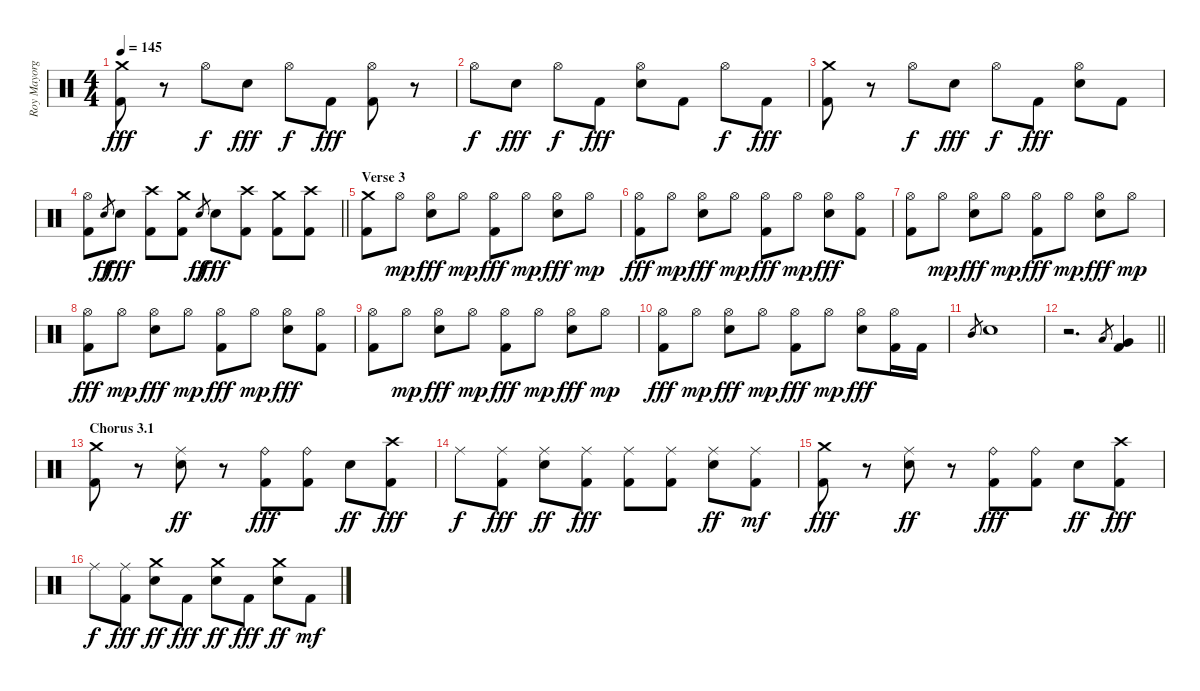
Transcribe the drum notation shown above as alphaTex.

\track ("Roy Mayorga" "Roy Mayorg") {instrument percussion}
\staff {score}
\articulation defaults
\ts (4 4)
\tempo 145
\clef neutral
\ks c
("Crash medium (hit)" "Kick (hit) 2").8{dy fff} r.8 "Hi-Hat (open)".8{dy f} "Electric Snare (hit)".8{dy fff} "Hi-Hat (open)".8{dy f} "Kick (hit) 2".8{dy fff} ("Hi-Hat (open)" "Kick (hit) 2").8 r.8 |
"Hi-Hat (open)".8{dy f} "Electric Snare (hit)".8{dy fff} "Hi-Hat (open)".8{dy f} "Kick (hit) 2".8{dy fff} ("Hi-Hat (open)" "Electric Snare (hit)").8 "Kick (hit) 2".8 "Hi-Hat (open)".8{dy f} "Kick (hit) 2".8{dy fff} |
("Crash medium (hit)" "Kick (hit) 2").8 r.8 "Hi-Hat (open)".8{dy f} "Electric Snare (hit)".8{dy fff} "Hi-Hat (open)".8{dy f} "Kick (hit) 2".8{dy fff} ("Hi-Hat (open)" "Electric Snare (hit)").8 "Kick (hit) 2".8 |
\barLineRight lightlight
("Hi-Hat (open)" "Kick (hit) 2").8 "Electric Snare (hit)".8{gr dy ff} "Electric Snare (hit)".8{dy fff} ("Crash high (hit)" "Kick (hit) 2").8 ("Crash medium (hit)" "Kick (hit) 2").8 "Electric Snare (hit)".8{gr dy ff} "Electric Snare (hit)".8{dy fff} ("Crash high (hit)" "Kick (hit) 2").8 ("Crash medium (hit)" "Kick (hit) 2").8 ("Crash high (hit)" "Kick (hit) 2").8 |
\section ("" "Verse 3")
("Crash medium (hit)" "Kick (hit) 2").8 "Hi-Hat (open)".8{dy mp} ("Hi-Hat (open)" "Electric Snare (hit)").8{dy fff} "Hi-Hat (open)".8{dy mp} ("Hi-Hat (open)" "Kick (hit) 2").8{dy fff} "Hi-Hat (open)".8{dy mp} ("Hi-Hat (open)" "Electric Snare (hit)").8{dy fff} "Hi-Hat (open)".8{dy mp} |
("Hi-Hat (open)" "Kick (hit) 2").8{dy fff} "Hi-Hat (open)".8{dy mp} ("Hi-Hat (open)" "Electric Snare (hit)").8{dy fff} "Hi-Hat (open)".8{dy mp} ("Hi-Hat (open)" "Kick (hit) 2").8{dy fff} "Hi-Hat (open)".8{dy mp} ("Hi-Hat (open)" "Electric Snare (hit)").8{dy fff} ("Hi-Hat (open)" "Kick (hit) 2").8 |
("Hi-Hat (open)" "Kick (hit) 2").8 "Hi-Hat (open)".8{dy mp} ("Hi-Hat (open)" "Electric Snare (hit)").8{dy fff} "Hi-Hat (open)".8{dy mp} ("Hi-Hat (open)" "Kick (hit) 2").8{dy fff} "Hi-Hat (open)".8{dy mp} ("Hi-Hat (open)" "Electric Snare (hit)").8{dy fff} "Hi-Hat (open)".8{dy mp} |
("Hi-Hat (open)" "Kick (hit) 2").8{dy fff} "Hi-Hat (open)".8{dy mp} ("Hi-Hat (open)" "Electric Snare (hit)").8{dy fff} "Hi-Hat (open)".8{dy mp} ("Hi-Hat (open)" "Kick (hit) 2").8{dy fff} "Hi-Hat (open)".8{dy mp} ("Hi-Hat (open)" "Electric Snare (hit)").8{dy fff} ("Hi-Hat (open)" "Kick (hit) 2").8 |
("Hi-Hat (open)" "Kick (hit) 2").8 "Hi-Hat (open)".8{dy mp} ("Hi-Hat (open)" "Electric Snare (hit)").8{dy fff} "Hi-Hat (open)".8{dy mp} ("Hi-Hat (open)" "Kick (hit) 2").8{dy fff} "Hi-Hat (open)".8{dy mp} ("Hi-Hat (open)" "Electric Snare (hit)").8{dy fff} "Hi-Hat (open)".8{dy mp} |
("Hi-Hat (open)" "Kick (hit) 2").8{dy fff} "Hi-Hat (open)".8{dy mp} ("Hi-Hat (open)" "Electric Snare (hit)").8{dy fff} "Hi-Hat (open)".8{dy mp} ("Hi-Hat (open)" "Kick (hit) 2").8{dy fff} "Hi-Hat (open)".8{dy mp} ("Hi-Hat (open)" "Electric Snare (hit)").8{dy fff} ("Hi-Hat (open)" "Kick (hit) 2").16 "Kick (hit) 2".16 |
"Mid Tom (hit)".8{gr} "Electric Snare (hit)".1 |
\barLineRight lightlight
r.2{d} "Low Floor Tom (hit)".8{gr} ("Very Low Tom (hit)" "Kick (hit) 2").4 |
\section ("" "Chorus 3.1")
("Crash medium (hit)" "Kick (hit) 2").8 r.8 ("Ride (middle)" "Electric Snare (hit)").8{dy ff} r.8 ("Ride (bell)" "Kick (hit) 2").8{dy fff} ("Ride (bell)" "Kick (hit) 2").8 "Electric Snare (hit)".8{dy ff} ("Crash high (hit)" "Kick (hit) 2").8{dy fff} |
"Ride (middle)".8{dy f} ("Ride (middle)" "Kick (hit) 2").8{dy fff} ("Ride (middle)" "Electric Snare (hit)").8{dy ff} ("Ride (middle)" "Kick (hit) 2").8{dy fff} ("Ride (middle)" "Kick (hit) 2").8 ("Ride (middle)" "Kick (hit) 2").8 ("Ride (middle)" "Electric Snare (hit)").8{dy ff} ("Ride (middle)" "Kick (hit) 2").8{dy mf} |
("Crash medium (hit)" "Kick (hit) 2").8{dy fff} r.8 ("Ride (middle)" "Electric Snare (hit)").8{dy ff} r.8 ("Ride (bell)" "Kick (hit) 2").8{dy fff} ("Ride (bell)" "Kick (hit) 2").8 "Electric Snare (hit)".8{dy ff} ("Crash high (hit)" "Kick (hit) 2").8{dy fff} |
"Ride (middle)".8{dy f} ("Ride (middle)" "Kick (hit) 2").8{dy fff} ("Crash medium (hit)" "Electric Snare (hit)").8{dy ff} "Kick (hit) 2".8{dy fff} ("Crash medium (hit)" "Electric Snare (hit)").8{dy ff} "Kick (hit) 2".8{dy fff} ("Crash medium (hit)" "Electric Snare (hit)").8{dy ff} "Kick (hit) 2".8{dy mf}
